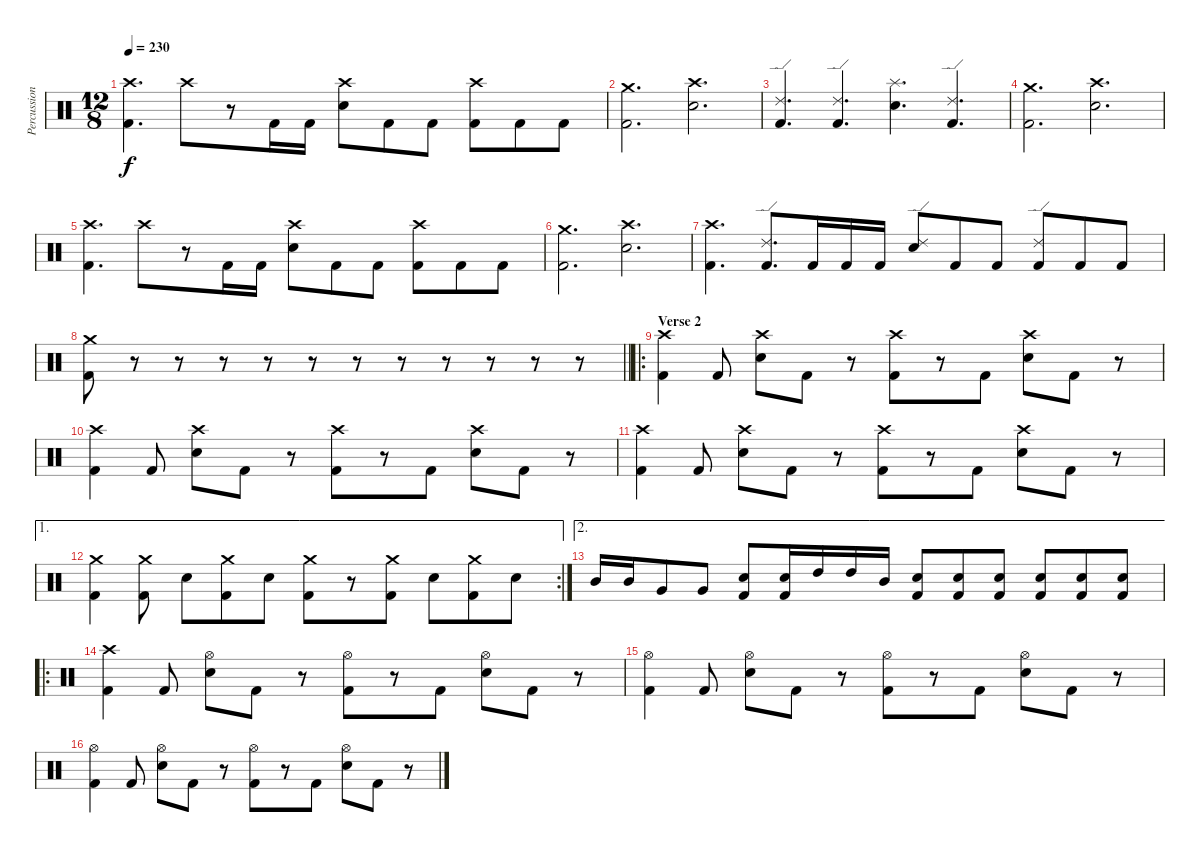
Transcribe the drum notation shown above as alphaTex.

\track ("Percussions" "Percussion") {instrument percussion}
\staff {score}
\articulation defaults
\ts (12 8)
\tempo 230
\clef neutral
\ks c
("Crash high (hit)" "Kick (hit) 2").4{d dy f} "Crash high (hit)".8 r.8 "Kick (hit) 2".16 "Kick (hit) 2".16 ("Crash high (hit)" "Electric Snare (hit)").8 "Kick (hit) 2".8 "Kick (hit) 2".8 ("Crash high (hit)" "Kick (hit) 2").8 "Kick (hit) 2".8 "Kick (hit) 2".8 |
("Crash medium (hit)" "Kick (hit) 2").2{d} ("Crash high (hit)" "Electric Snare (hit)").2{d} |
("Ride (edge) 2" "Kick (hit) 2").4{d} ("Ride (edge) 2" "Kick (hit) 2").4{d} ("Splash (hit)" "Electric Snare (hit)").4{d} ("Ride (edge) 2" "Kick (hit) 2").4{d} |
("Crash medium (hit)" "Kick (hit) 2").2{d} ("Crash high (hit)" "Electric Snare (hit)").2{d} |
("Crash high (hit)" "Kick (hit) 2").4{d} "Crash high (hit)".8 r.8 "Kick (hit) 2".16 "Kick (hit) 2".16 ("Crash high (hit)" "Electric Snare (hit)").8 "Kick (hit) 2".8 "Kick (hit) 2".8 ("Crash high (hit)" "Kick (hit) 2").8 "Kick (hit) 2".8 "Kick (hit) 2".8 |
("Crash medium (hit)" "Kick (hit) 2").2{d} ("Crash high (hit)" "Electric Snare (hit)").2{d} |
("Crash high (hit)" "Kick (hit) 2").4{d} ("Ride (edge) 2" "Kick (hit) 2").8{d} "Kick (hit) 2".16 "Kick (hit) 2".16 "Kick (hit) 2".16 ("Ride (edge) 2" "Electric Snare (hit)").8 "Kick (hit) 2".8 "Kick (hit) 2".8 ("Ride (edge) 2" "Kick (hit) 2").8 "Kick (hit) 2".8 "Kick (hit) 2".8 |
\barLineRight lightlight
("Crash medium (hit)" "Kick (hit) 2").8 r.8 r.8 r.8 r.8 r.8 r.8 r.8 r.8 r.8 r.8 r.8 |
\ro
\section ("" "Verse 2")
("Crash high (hit)" "Kick (hit) 2").4 "Kick (hit) 2".8 ("Crash high (hit)" "Electric Snare (hit)").8 "Kick (hit) 2".8 r.8 ("Crash high (hit)" "Kick (hit) 2").8 r.8 "Kick (hit) 2".8 ("Crash high (hit)" "Electric Snare (hit)").8 "Kick (hit) 2".8 r.8 |
("Crash high (hit)" "Kick (hit) 2").4 "Kick (hit) 2".8 ("Crash high (hit)" "Electric Snare (hit)").8 "Kick (hit) 2".8 r.8 ("Crash high (hit)" "Kick (hit) 2").8 r.8 "Kick (hit) 2".8 ("Crash high (hit)" "Electric Snare (hit)").8 "Kick (hit) 2".8 r.8 |
("Crash high (hit)" "Kick (hit) 2").4 "Kick (hit) 2".8 ("Crash high (hit)" "Electric Snare (hit)").8 "Kick (hit) 2".8 r.8 ("Crash high (hit)" "Kick (hit) 2").8 r.8 "Kick (hit) 2".8 ("Crash high (hit)" "Electric Snare (hit)").8 "Kick (hit) 2".8 r.8 |
\ae 1
\rc 2
("Crash medium (hit)" "Kick (hit) 2").4 ("Crash medium (hit)" "Kick (hit) 2").8 "Electric Snare (hit)".8 ("Crash medium (hit)" "Kick (hit) 2").8 "Electric Snare (hit)".8 ("Crash medium (hit)" "Kick (hit) 2").8 r.8 ("Crash medium (hit)" "Kick (hit) 2").8 "Electric Snare (hit)".8 ("Crash medium (hit)" "Kick (hit) 2").8 "Electric Snare (hit)".8 |
\ae 2 "Mid Tom (hit)".16 "Mid Tom (hit)".16 "Very Low Tom (hit)".8 "Very Low Tom (hit)".8
("Electric Snare (hit)" "Kick (hit) 2").8 ("Electric Snare (hit)" "Kick (hit) 2").16 "High Tom (hit)".16 "High Tom (hit)".16 "Mid Tom (hit)".16 ("Electric Snare (hit)" "Kick (hit) 2").8 ("Electric Snare (hit)" "Kick (hit) 2").8 ("Electric Snare (hit)" "Kick (hit) 2").8 ("Electric Snare (hit)" "Kick (hit) 2").8 ("Electric Snare (hit)" "Kick (hit) 2").8 ("Electric Snare (hit)" "Kick (hit) 2").8 |
\ro
("Crash high (hit)" "Kick (hit) 2").4 "Kick (hit) 2".8 ("Hi-Hat (open)" "Electric Snare (hit)").8 "Kick (hit) 2".8 r.8 ("Hi-Hat (open)" "Kick (hit) 2").8 r.8 "Kick (hit) 2".8 ("Hi-Hat (open)" "Electric Snare (hit)").8 "Kick (hit) 2".8 r.8 |
("Hi-Hat (open)" "Kick (hit) 2").4 "Kick (hit) 2".8 ("Hi-Hat (open)" "Electric Snare (hit)").8 "Kick (hit) 2".8 r.8 ("Hi-Hat (open)" "Kick (hit) 2").8 r.8 "Kick (hit) 2".8 ("Hi-Hat (open)" "Electric Snare (hit)").8 "Kick (hit) 2".8 r.8 |
("Hi-Hat (open)" "Kick (hit) 2").4 "Kick (hit) 2".8 ("Hi-Hat (open)" "Electric Snare (hit)").8 "Kick (hit) 2".8 r.8 ("Hi-Hat (open)" "Kick (hit) 2").8 r.8 "Kick (hit) 2".8 ("Hi-Hat (open)" "Electric Snare (hit)").8 "Kick (hit) 2".8 r.8
